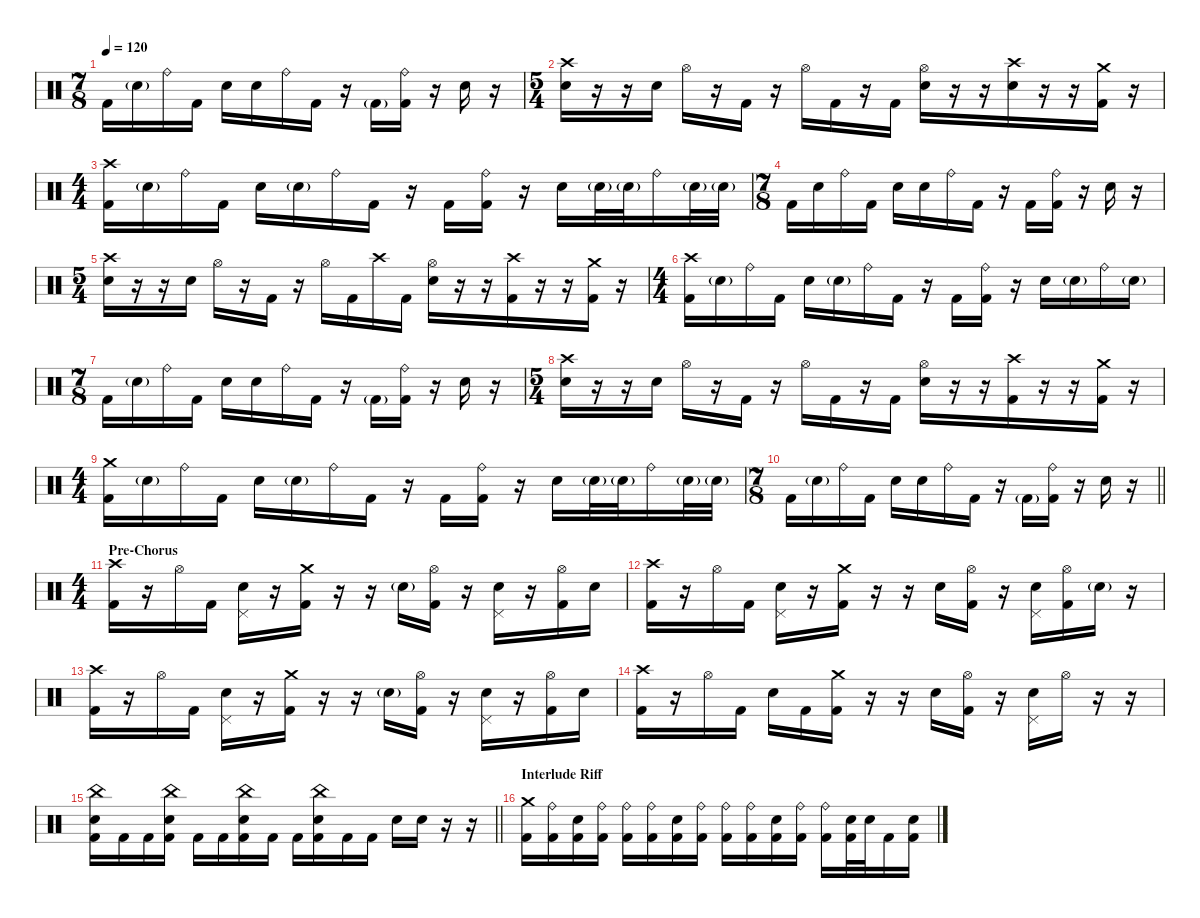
\defaultSystemsLayout 4
\hideDynamics
\bracketExtendMode nobrackets
\singleTrackTrackNamePolicy hidden
\multiTrackTrackNamePolicy hidden
\firstSystemTrackNameMode fullname
\firstSystemTrackNameOrientation horizontal
\otherSystemsTrackNameOrientation horizontal
\track ("Martin Axenrot - Drums" "drm.") {instrument percussion}
\staff {score}
\articulation defaults
\ts (7 8)
\beaming (8 2 2 2 2)
\tempo 120
\clef neutral
\ks c "Kick (hit) 2".16{dy f beam Down} "Snare (hit) 2"{g}.16{dy mf beam Down} "Ride (bell)".16{dy f beam Down} "Kick (hit) 2".16{beam Down} "Snare (hit) 2".16{beam Down} "Snare (hit) 2".16{beam Down} "Ride (bell)".16{beam Down} "Kick (hit) 2".16{beam Down}
r.16{beam Down} "Kick (hit) 2"{g}.16{dy mf beam Down} ("Ride (bell)" "Kick (hit) 2").16{dy f beam Down} r.16{beam Down} "Snare (hit) 2".16{beam Down} r.16{beam Down} |
\ts (5 4)
\beaming (8 2 2 2 4)
("Crash high (hit)" "Snare (hit) 2").16{beam Down} r.16{beam Down} r.16{beam Down} "Snare (hit) 2".16{beam Down} "Hi-Hat (open)".16{beam Down} r.16{beam Down} "Kick (hit) 2".16{beam Down} r.16{beam Down} "Hi-Hat (open)".16{beam Down} "Kick (hit) 2".16{beam Down} r.16{beam Down} "Kick (hit) 2".16{beam Down} ("Hi-Hat (open)" "Snare (hit) 2").16{beam Down} r.16{beam Down} r.16{beam Down} ("Crash high (hit)" "Snare (hit) 2").16{beam Down} r.16{beam Down} r.16{beam Down} ("Crash medium (hit)" "Kick (hit) 2").16{beam Down} r.16{beam Down} |
\ts (4 4)
\beaming (8 2 2 2 2)
("Crash high (hit)" "Kick (hit) 2").16{beam Down} "Snare (hit) 2"{g}.16{dy mf beam Down} "Ride (bell)".16{dy f beam Down} "Kick (hit) 2".16{beam Down} "Snare (hit) 2".16{beam Down} "Snare (hit) 2"{g}.16{dy mf beam Down} "Ride (bell)".16{dy f beam Down} "Kick (hit) 2".16{beam Down} r.16{beam Down} "Kick (hit) 2".16{dy mf beam Down} ("Ride (bell)" "Kick (hit) 2").16{dy f beam Down} r.16{beam Down} "Snare (hit) 2".16{beam Down} "Snare (hit) 2"{g}.32{dy mf beam Down} "Snare (hit) 2"{g}.32{beam Down} "Ride (bell)".16{dy f beam Down} "Snare (hit) 2"{g}.32{dy mf beam Down} "Snare (hit) 2"{g}.32{beam Down} |
\ts (7 8)
\beaming (8 2 2 2 2)
"Kick (hit) 2".16{dy f beam Down} "Snare (hit) 2".16{beam Down} "Ride (bell)".16{beam Down} "Kick (hit) 2".16{beam Down} "Snare (hit) 2".16{beam Down} "Snare (hit) 2".16{beam Down} "Ride (bell)".16{beam Down} "Kick (hit) 2".16{beam Down} r.16{beam Down} "Kick (hit) 2".16{beam Down} ("Ride (bell)" "Kick (hit) 2").16{beam Down} r.16{beam Down} "Snare (hit) 2".16{beam Down} r.16{beam Down} |
\ts (5 4)
\beaming (8 2 2 2 4)
("Crash high (hit)" "Snare (hit) 2").16{beam Down} r.16{beam Down} r.16{beam Down} "Snare (hit) 2".16{beam Down} "Hi-Hat (open)".16{beam Down} r.16{beam Down} "Kick (hit) 2".16{beam Down} r.16{beam Down} "Hi-Hat (open)".16{beam Down} "Kick (hit) 2".16{beam Down} "Crash high (hit)".16{beam Down} "Kick (hit) 2".16{beam Down} ("Hi-Hat (open)" "Snare (hit) 2").16{beam Down} r.16{beam Down} r.16{beam Down} ("Crash high (hit)" "Kick (hit) 2").16{beam Down} r.16{beam Down} r.16{beam Down} ("Crash medium (hit)" "Kick (hit) 2").16{beam Down} r.16{beam Down} |
\ts (4 4)
\beaming (8 2 2 2 2)
("Crash high (hit)" "Kick (hit) 2").16{beam Down} "Snare (hit) 2"{g}.16{dy mf beam Down} "Ride (bell)".16{dy f beam Down} "Kick (hit) 2".16{beam Down} "Snare (hit) 2".16{beam Down} "Snare (hit) 2"{g}.16{dy mf beam Down} "Ride (bell)".16{dy f beam Down} "Kick (hit) 2".16{beam Down} r.16{beam Down} "Kick (hit) 2".16{dy mf beam Down} ("Ride (bell)" "Kick (hit) 2").16{dy f beam Down} r.16{beam Down} "Snare (hit) 2".16{beam Down} "Snare (hit) 2"{g}.16{dy mf beam Down} "Ride (bell)".16{dy f beam Down} "Snare (hit) 2"{g}.16{dy mf beam Down} |
\ts (7 8)
\beaming (8 2 2 2 2)
"Kick (hit) 2".16{dy f beam Down} "Snare (hit) 2"{g}.16{dy mf beam Down} "Ride (bell)".16{dy f beam Down} "Kick (hit) 2".16{beam Down} "Snare (hit) 2".16{beam Down} "Snare (hit) 2".16{beam Down} "Ride (bell)".16{beam Down} "Kick (hit) 2".16{beam Down} r.16{beam Down} "Kick (hit) 2"{g}.16{dy mf beam Down} ("Ride (bell)" "Kick (hit) 2").16{dy f beam Down} r.16{beam Down} "Snare (hit) 2".16{beam Down} r.16{beam Down} |
\ts (5 4)
\beaming (8 2 2 2 4)
("Crash high (hit)" "Snare (hit) 2").16{beam Down} r.16{beam Down} r.16{beam Down} "Snare (hit) 2".16{beam Down} "Hi-Hat (open)".16{beam Down} r.16{beam Down} "Kick (hit) 2".16{beam Down} r.16{beam Down} "Hi-Hat (open)".16{beam Down} "Kick (hit) 2".16{beam Down} r.16{beam Down} "Kick (hit) 2".16{beam Down} ("Hi-Hat (open)" "Snare (hit) 2").16{beam Down} r.16{beam Down} r.16{beam Down} ("Crash high (hit)" "Kick (hit) 2").16{beam Down} r.16{beam Down} r.16{beam Down} ("Crash medium (hit)" "Kick (hit) 2").16{beam Down} r.16{beam Down} |
\ts (4 4)
\beaming (8 2 2 2 2)
("Crash medium (hit)" "Kick (hit) 2").16{beam Down} "Snare (hit) 2"{g}.16{dy mf beam Down} "Ride (bell)".16{dy f beam Down} "Kick (hit) 2".16{beam Down} "Snare (hit) 2".16{beam Down} "Snare (hit) 2"{g}.16{dy mf beam Down} "Ride (bell)".16{dy f beam Down} "Kick (hit) 2".16{beam Down} r.16{beam Down} "Kick (hit) 2".16{dy mf beam Down} ("Ride (bell)" "Kick (hit) 2").16{dy f beam Down} r.16{beam Down} "Snare (hit) 2".16{beam Down} "Snare (hit) 2"{g}.32{dy mf beam Down} "Snare (hit) 2"{g}.32{beam Down} "Ride (bell)".16{dy f beam Down} "Snare (hit) 2"{g}.32{dy mf beam Down} "Snare (hit) 2"{g}.32{beam Down} |
\ts (7 8)
\beaming (8 2 2 2 2)
\barLineRight lightlight "Kick (hit) 2".16{dy f beam Down} "Snare (hit) 2"{g}.16{dy mf beam Down} "Ride (bell)".16{dy f beam Down} "Kick (hit) 2".16{beam Down} "Snare (hit) 2".16{beam Down} "Snare (hit) 2".16{beam Down} "Ride (bell)".16{beam Down} "Kick (hit) 2".16{beam Down}
r.16{beam Down} "Kick (hit) 2"{g}.16{dy mf beam Down} ("Ride (bell)" "Kick (hit) 2").16{dy f beam Down} r.16{beam Down} "Snare (hit) 2".16{beam Down} r.16{beam Down} |
\ts (4 4)
\beaming (8 2 2 2 2)
\section ("" "Pre-Chorus")
("Crash high (hit)" "Kick (hit) 2").16{beam Down} r.16{beam Down} "Hi-Hat (open)".16{beam Down} "Kick (hit) 2".16{beam Down} ("Snare (hit) 2" "Pedal Hi-Hat (hit)").16{beam Down} r.16{beam Down} ("Crash medium (hit)" "Kick (hit) 2").16{beam Down} r.16{beam Down} r.16{beam Down} "Snare (hit) 2"{g}.16{dy mf beam Down} ("Hi-Hat (open)" "Kick (hit) 2").16{dy f beam Down} r.16{beam Down} ("Snare (hit) 2" "Pedal Hi-Hat (hit)").16{beam Down} r.16{beam Down} ("Hi-Hat (open)" "Kick (hit) 2").16{beam Down} "Snare (hit) 2".16{beam Down} |
("Crash high (hit)" "Kick (hit) 2").16{beam Down} r.16{beam Down} "Hi-Hat (open)".16{beam Down} "Kick (hit) 2".16{beam Down} ("Snare (hit) 2" "Pedal Hi-Hat (hit)").16{beam Down} r.16{beam Down} ("Crash medium (hit)" "Kick (hit) 2").16{beam Down} r.16{beam Down} r.16{beam Down} "Snare (hit) 2".16{beam Down} ("Hi-Hat (open)" "Kick (hit) 2").16{beam Down} r.16{beam Down} ("Snare (hit) 2" "Pedal Hi-Hat (hit)").16{beam Down} ("Hi-Hat (open)" "Kick (hit) 2").16{beam Down} "Snare (hit) 2"{g}.16{dy mf beam Down} r.16{beam Down} |
("Crash high (hit)" "Kick (hit) 2").16{dy f beam Down} r.16{beam Down} "Hi-Hat (open)".16{beam Down} "Kick (hit) 2".16{beam Down} ("Snare (hit) 2" "Pedal Hi-Hat (hit)").16{beam Down} r.16{beam Down} ("Crash medium (hit)" "Kick (hit) 2").16{beam Down} r.16{beam Down} r.16{beam Down} "Snare (hit) 2"{g}.16{dy mf beam Down} ("Hi-Hat (open)" "Kick (hit) 2").16{dy f beam Down} r.16{beam Down} ("Snare (hit) 2" "Pedal Hi-Hat (hit)").16{beam Down} r.16{beam Down} ("Hi-Hat (open)" "Kick (hit) 2").16{beam Down} "Snare (hit) 2".16{beam Down} |
("Crash high (hit)" "Kick (hit) 2").16{beam Down} r.16{beam Down} "Hi-Hat (open)".16{beam Down} "Kick (hit) 2".16{beam Down} "Snare (hit) 2".16{beam Down} "Kick (hit) 2".16{beam Down} ("Crash medium (hit)" "Kick (hit) 2").16{beam Down} r.16{beam Down} r.16{beam Down} "Snare (hit) 2".16{beam Down} ("Hi-Hat (open)" "Kick (hit) 2").16{beam Down} r.16{beam Down} ("Snare (hit) 2" "Pedal Hi-Hat (hit)").16{beam Down} "Hi-Hat (open)".16{beam Down} r.16{beam Down} r.16{beam Down} |
\barLineRight lightlight
("China (hit)" "Snare (hit) 2" "Kick (hit) 2").16{beam Down} "Kick (hit) 2".16{beam Down} "Kick (hit) 2".16{beam Down} ("China (hit)" "Snare (hit) 2" "Kick (hit) 2").16{beam Down} "Kick (hit) 2".16{beam Down} "Kick (hit) 2".16{beam Down} ("China (hit)" "Snare (hit) 2" "Kick (hit) 2").16{beam Down} "Kick (hit) 2".16{beam Down} "Kick (hit) 2".16{beam Down} ("China (hit)" "Snare (hit) 2" "Kick (hit) 2").16{beam Down} "Kick (hit) 2".16{beam Down} "Kick (hit) 2".16{beam Down} "Snare (hit) 2".16{dy ff beam Down} "Snare (hit) 2".16{beam Down} r.16{beam Down} r.16{beam Down} |
\section ("" "Interlude Riff")
("Crash medium (hit)" "Kick (hit) 2").16{dy f beam Down} ("Ride (bell)" "Kick (hit) 2").16{beam Down} ("Snare (hit) 2" "Kick (hit) 2").16{beam Down} ("Ride (bell)" "Kick (hit) 2").16{beam Down} ("Ride (bell)" "Kick (hit) 2").16{dy mf beam Down} ("Ride (bell)" "Kick (hit) 2").16{dy f beam Down} ("Snare (hit) 2" "Kick (hit) 2").16{beam Down} ("Ride (bell)" "Kick (hit) 2").16{beam Down} ("Ride (bell)" "Kick (hit) 2").16{dy mf beam Down} ("Ride (bell)" "Kick (hit) 2").16{dy f beam Down} ("Snare (hit) 2" "Kick (hit) 2").16{beam Down} ("Ride (bell)" "Kick (hit) 2").16{dy mf beam Down} ("Ride (bell)" "Kick (hit) 2").16{dy f beam Down} ("Snare (hit) 2" "Kick (hit) 2").32{beam Down} "Snare (hit) 2".32{beam Down} "Kick (hit) 2".16{beam Down} ("Snare (hit) 2" "Kick (hit) 2").16{beam Down}
